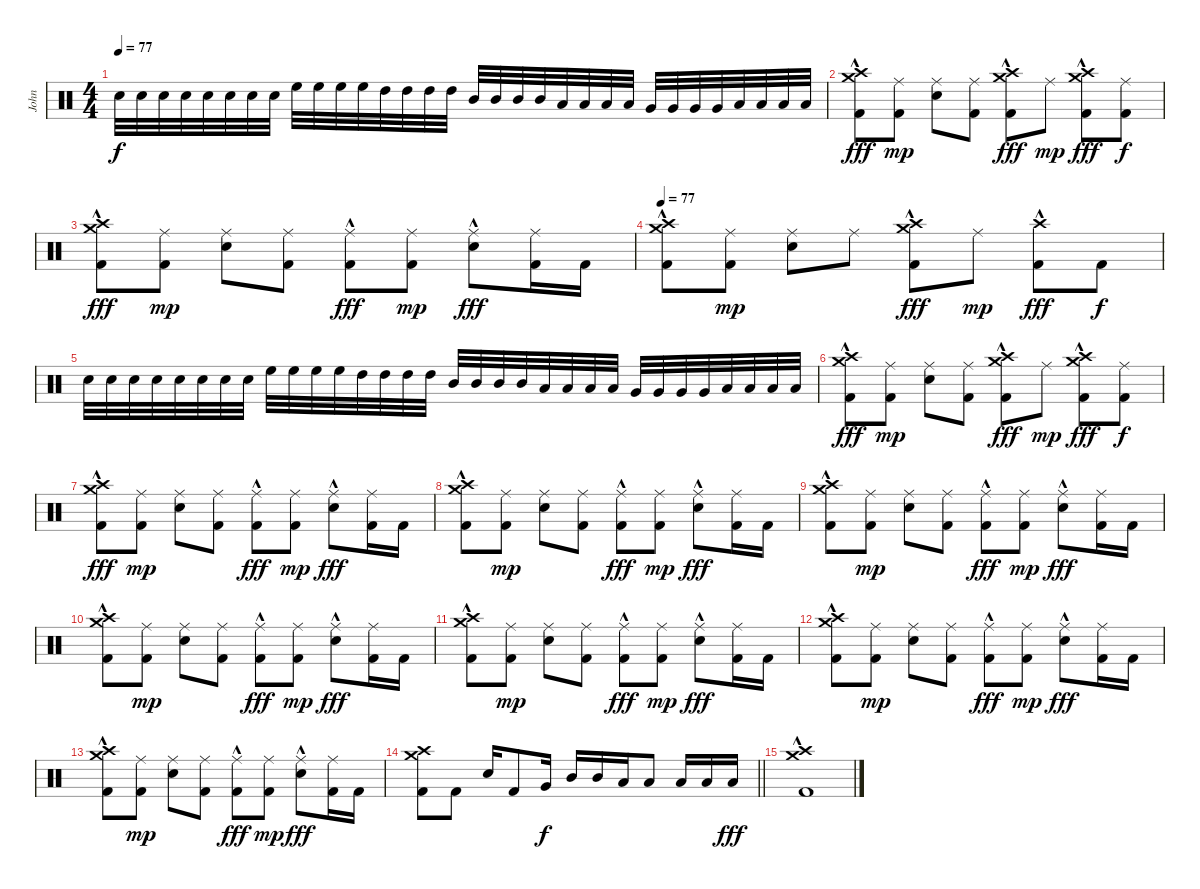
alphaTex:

\track ("John" "John") {instrument percussion}
\staff {score}
\articulation defaults
\ts (4 4)
\tempo 77
\clef neutral
\ks c "Electric Snare (hit)".32{dy f} "Electric Snare (hit)".32 "Electric Snare (hit)".32 "Electric Snare (hit)".32 "Electric Snare (hit)".32 "Electric Snare (hit)".32 "Electric Snare (hit)".32 "Electric Snare (hit)".32 "High Floor Tom (hit)".32 "High Floor Tom (hit)".32 "High Floor Tom (hit)".32 "High Floor Tom (hit)".32 "High Tom (hit)".32 "High Tom (hit)".32 "High Tom (hit)".32 "High Tom (hit)".32 "Mid Tom (hit)".32 "Mid Tom (hit)".32 "Mid Tom (hit)".32 "Mid Tom (hit)".32 "Low Tom (hit)".32 "Low Tom (hit)".32 "Low Tom (hit)".32 "Low Tom (hit)".32 "Very Low Tom (hit)".32 "Very Low Tom (hit)".32 "Very Low Tom (hit)".32 "Very Low Tom (hit)".32 "Low Floor Tom (hit)".32 "Low Floor Tom (hit)".32 "Low Floor Tom (hit)".32 "Low Floor Tom (hit)".32
|
("Crash high (hit)"{hac} "Crash medium (hit)" "Kick (hit) 2"{hac}).8{dy fff} ("Ride (middle)" "Kick (hit) 2").8{dy mp} ("Ride (middle)" "Electric Snare (hit)").8 ("Ride (middle)" "Kick (hit) 2").8 ("Crash high (hit)"{hac} "Crash medium (hit)" "Kick (hit) 2"{hac}).8{dy fff} "Ride (middle)".8{dy mp} ("Crash high (hit)"{hac} "Crash medium (hit)" "Kick (hit) 2"{hac}).8{dy fff} ("Ride (middle)" "Kick (hit) 2").8{dy f} |
("Crash high (hit)"{hac} "Crash medium (hit)" "Kick (hit) 2"{hac}).8{dy fff} ("Ride (middle)" "Kick (hit) 2").8{dy mp} ("Ride (middle)" "Electric Snare (hit)").8 ("Ride (middle)" "Kick (hit) 2").8 ("Ride (middle)"{hac} "Kick (hit) 2").8{dy fff} ("Ride (middle)" "Kick (hit) 2").8{dy mp} ("Ride (middle)"{hac} "Electric Snare (hit)"{hac}).8{dy fff} ("Ride (middle)" "Kick (hit) 2").16 "Kick (hit) 2".16 |
\tempo 77
("Crash high (hit)"{hac} "Crash medium (hit)" "Kick (hit) 2"{hac}).8 ("Ride (middle)" "Kick (hit) 2").8{dy mp} ("Ride (middle)" "Electric Snare (hit)").8 "Ride (middle)".8 ("Crash high (hit)"{hac} "Crash medium (hit)"{hac} "Kick (hit) 2").8{dy fff} "Ride (middle)".8{dy mp} ("Crash high (hit)"{hac} "Kick (hit) 2"{hac}).8{dy fff} "Kick (hit) 2".8{dy f} |
"Electric Snare (hit)".32 "Electric Snare (hit)".32 "Electric Snare (hit)".32 "Electric Snare (hit)".32 "Electric Snare (hit)".32 "Electric Snare (hit)".32 "Electric Snare (hit)".32 "Electric Snare (hit)".32 "High Floor Tom (hit)".32 "High Floor Tom (hit)".32 "High Floor Tom (hit)".32 "High Floor Tom (hit)".32 "High Tom (hit)".32 "High Tom (hit)".32 "High Tom (hit)".32 "High Tom (hit)".32 "Mid Tom (hit)".32 "Mid Tom (hit)".32 "Mid Tom (hit)".32 "Mid Tom (hit)".32 "Low Tom (hit)".32 "Low Tom (hit)".32 "Low Tom (hit)".32 "Low Tom (hit)".32 "Very Low Tom (hit)".32 "Very Low Tom (hit)".32 "Very Low Tom (hit)".32 "Very Low Tom (hit)".32 "Low Floor Tom (hit)".32 "Low Floor Tom (hit)".32 "Low Floor Tom (hit)".32 "Low Floor Tom (hit)".32 |
("Crash high (hit)"{hac} "Crash medium (hit)" "Kick (hit) 2"{hac}).8{dy fff} ("Ride (middle)" "Kick (hit) 2").8{dy mp} ("Ride (middle)" "Electric Snare (hit)").8 ("Ride (middle)" "Kick (hit) 2").8 ("Crash high (hit)"{hac} "Crash medium (hit)" "Kick (hit) 2"{hac}).8{dy fff} "Ride (middle)".8{dy mp} ("Crash high (hit)"{hac} "Crash medium (hit)" "Kick (hit) 2"{hac}).8{dy fff} ("Ride (middle)" "Kick (hit) 2").8{dy f} |
("Crash high (hit)"{hac} "Crash medium (hit)" "Kick (hit) 2"{hac}).8{dy fff} ("Ride (middle)" "Kick (hit) 2").8{dy mp} ("Ride (middle)" "Electric Snare (hit)").8 ("Ride (middle)" "Kick (hit) 2").8 ("Ride (middle)"{hac} "Kick (hit) 2").8{dy fff} ("Ride (middle)" "Kick (hit) 2").8{dy mp} ("Ride (middle)"{hac} "Electric Snare (hit)"{hac}).8{dy fff} ("Ride (middle)" "Kick (hit) 2").16 "Kick (hit) 2".16 |
("Crash high (hit)"{hac} "Crash medium (hit)" "Kick (hit) 2"{hac}).8 ("Ride (middle)" "Kick (hit) 2").8{dy mp} ("Ride (middle)" "Electric Snare (hit)").8 ("Ride (middle)" "Kick (hit) 2").8 ("Ride (middle)"{hac} "Kick (hit) 2").8{dy fff} ("Ride (middle)" "Kick (hit) 2").8{dy mp} ("Ride (middle)"{hac} "Electric Snare (hit)"{hac}).8{dy fff} ("Ride (middle)" "Kick (hit) 2").16 "Kick (hit) 2".16 |
("Crash high (hit)"{hac} "Crash medium (hit)" "Kick (hit) 2"{hac}).8 ("Ride (middle)" "Kick (hit) 2").8{dy mp} ("Ride (middle)" "Electric Snare (hit)").8 ("Ride (middle)" "Kick (hit) 2").8 ("Ride (middle)"{hac} "Kick (hit) 2").8{dy fff} ("Ride (middle)" "Kick (hit) 2").8{dy mp} ("Ride (middle)"{hac} "Electric Snare (hit)"{hac}).8{dy fff} ("Ride (middle)" "Kick (hit) 2").16 "Kick (hit) 2".16 |
("Crash high (hit)"{hac} "Crash medium (hit)" "Kick (hit) 2"{hac}).8 ("Ride (middle)" "Kick (hit) 2").8{dy mp} ("Ride (middle)" "Electric Snare (hit)").8 ("Ride (middle)" "Kick (hit) 2").8 ("Ride (middle)"{hac} "Kick (hit) 2").8{dy fff} ("Ride (middle)" "Kick (hit) 2").8{dy mp} ("Ride (middle)"{hac} "Electric Snare (hit)"{hac}).8{dy fff} ("Ride (middle)" "Kick (hit) 2").16 "Kick (hit) 2".16 |
("Crash high (hit)"{hac} "Crash medium (hit)" "Kick (hit) 2"{hac}).8 ("Ride (middle)" "Kick (hit) 2").8{dy mp} ("Ride (middle)" "Electric Snare (hit)").8 ("Ride (middle)" "Kick (hit) 2").8 ("Ride (middle)"{hac} "Kick (hit) 2").8{dy fff} ("Ride (middle)" "Kick (hit) 2").8{dy mp} ("Ride (middle)"{hac} "Electric Snare (hit)"{hac}).8{dy fff} ("Ride (middle)" "Kick (hit) 2").16 "Kick (hit) 2".16 |
("Crash high (hit)"{hac} "Crash medium (hit)" "Kick (hit) 2"{hac}).8 ("Ride (middle)" "Kick (hit) 2").8{dy mp} ("Ride (middle)" "Electric Snare (hit)").8 ("Ride (middle)" "Kick (hit) 2").8 ("Ride (middle)"{hac} "Kick (hit) 2").8{dy fff} ("Ride (middle)" "Kick (hit) 2").8{dy mp} ("Ride (middle)"{hac} "Electric Snare (hit)"{hac}).8{dy fff} ("Ride (middle)" "Kick (hit) 2").16 "Kick (hit) 2".16 |
("Crash high (hit)"{hac} "Crash medium (hit)" "Kick (hit) 2"{hac}).8 ("Ride (middle)" "Kick (hit) 2").8{dy mp} ("Ride (middle)" "Electric Snare (hit)").8 ("Ride (middle)" "Kick (hit) 2").8 ("Ride (middle)"{hac} "Kick (hit) 2").8{dy fff} ("Ride (middle)" "Kick (hit) 2").8{dy mp} ("Ride (middle)"{hac} "Electric Snare (hit)"{hac}).8{dy fff} ("Ride (middle)" "Kick (hit) 2").16 "Kick (hit) 2".16 |
\barLineRight lightlight
("Crash high (hit)" "Crash medium (hit)" "Kick (hit) 2").8 "Kick (hit) 2".8 "Electric Snare (hit)".16 "Kick (hit) 2".8 "Very Low Tom (hit)".16{dy f} "Mid Tom (hit)".16 "Mid Tom (hit)".16 "Low Tom (hit)".16 "Low Tom (hit)".8 "Low Floor Tom (hit)".16 "Low Floor Tom (hit)".16 "Low Floor Tom (hit)".16{dy fff} |
("Crash high (hit)" "Crash medium (hit)" "Kick (hit) 2"{hac}).1
